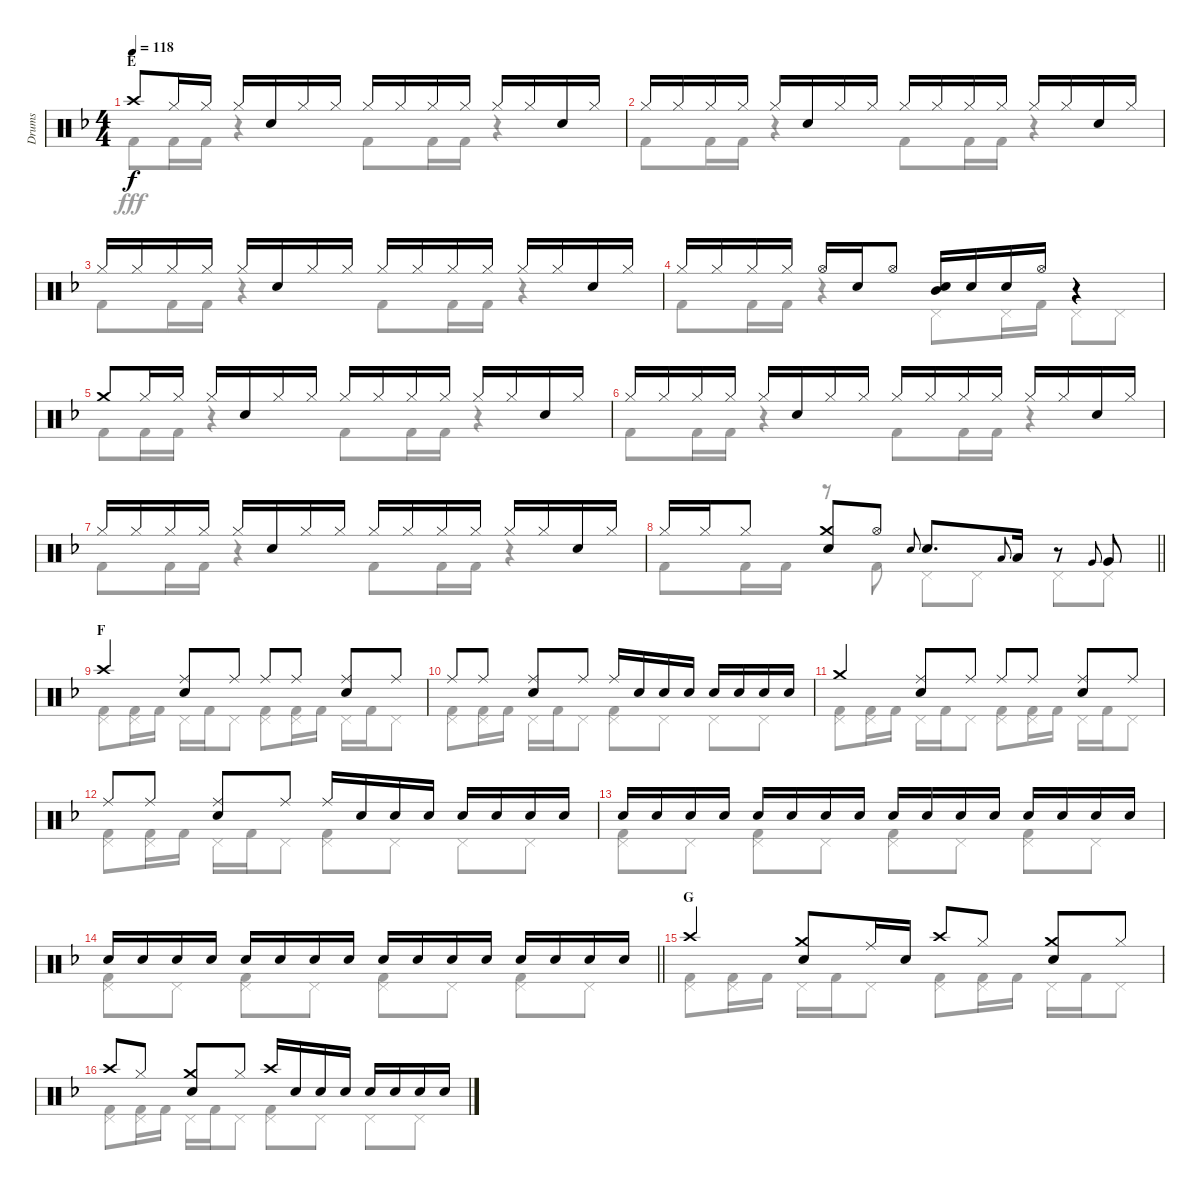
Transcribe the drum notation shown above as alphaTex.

\track ("Drums" "Drums") {instrument percussion}
\staff {score}
\articulation defaults
\voice
\ts (4 4)
\section ("" "E")
\tempo 118
\clef neutral
\ks f "Crash high (hit)".8{dy f} "Hi-Hat (closed)".16 "Hi-Hat (closed)".16 "Hi-Hat (closed)".16 "Snare (hit) 2".16 "Hi-Hat (closed)".16 "Hi-Hat (closed)".16 "Hi-Hat (closed)".16 "Hi-Hat (closed)".16 "Hi-Hat (closed)".16 "Hi-Hat (closed)".16 "Hi-Hat (closed)".16 "Hi-Hat (closed)".16 "Snare (hit) 2".16 "Hi-Hat (closed)".16
|
"Hi-Hat (closed)".16 "Hi-Hat (closed)".16 "Hi-Hat (closed)".16 "Hi-Hat (closed)".16 "Hi-Hat (closed)".16 "Snare (hit) 2".16 "Hi-Hat (closed)".16 "Hi-Hat (closed)".16 "Hi-Hat (closed)".16 "Hi-Hat (closed)".16 "Hi-Hat (closed)".16 "Hi-Hat (closed)".16 "Hi-Hat (closed)".16 "Hi-Hat (closed)".16 "Snare (hit) 2".16 "Hi-Hat (closed)".16 |
"Hi-Hat (closed)".16 "Hi-Hat (closed)".16 "Hi-Hat (closed)".16 "Hi-Hat (closed)".16 "Hi-Hat (closed)".16 "Snare (hit) 2".16 "Hi-Hat (closed)".16 "Hi-Hat (closed)".16 "Hi-Hat (closed)".16 "Hi-Hat (closed)".16 "Hi-Hat (closed)".16 "Hi-Hat (closed)".16 "Hi-Hat (closed)".16 "Hi-Hat (closed)".16 "Snare (hit) 2".16 "Hi-Hat (closed)".16 |
"Hi-Hat (closed)".16 "Hi-Hat (closed)".16 "Hi-Hat (closed)".16 "Hi-Hat (closed)".16 "Hi-Hat (open)".16 "Snare (hit) 2".16 "Hi-Hat (open)".8 ("Mid Tom (hit)" "Snare (hit) 2").16 "Snare (hit) 2".16 "Snare (hit) 2".16 "Hi-Hat (open)".16 r.4 |
"Crash medium (hit)".8 "Hi-Hat (closed)".16 "Hi-Hat (closed)".16 "Hi-Hat (closed)".16 "Snare (hit) 2".16 "Hi-Hat (closed)".16 "Hi-Hat (closed)".16 "Hi-Hat (closed)".16 "Hi-Hat (closed)".16 "Hi-Hat (closed)".16 "Hi-Hat (closed)".16 "Hi-Hat (closed)".16 "Hi-Hat (closed)".16 "Snare (hit) 2".16 "Hi-Hat (closed)".16 |
"Hi-Hat (closed)".16 "Hi-Hat (closed)".16 "Hi-Hat (closed)".16 "Hi-Hat (closed)".16 "Hi-Hat (closed)".16 "Snare (hit) 2".16 "Hi-Hat (closed)".16 "Hi-Hat (closed)".16 "Hi-Hat (closed)".16 "Hi-Hat (closed)".16 "Hi-Hat (closed)".16 "Hi-Hat (closed)".16 "Hi-Hat (closed)".16 "Hi-Hat (closed)".16 "Snare (hit) 2".16 "Hi-Hat (closed)".16 |
"Hi-Hat (closed)".16 "Hi-Hat (closed)".16 "Hi-Hat (closed)".16 "Hi-Hat (closed)".16 "Hi-Hat (closed)".16 "Snare (hit) 2".16 "Hi-Hat (closed)".16 "Hi-Hat (closed)".16 "Hi-Hat (closed)".16 "Hi-Hat (closed)".16 "Hi-Hat (closed)".16 "Hi-Hat (closed)".16 "Hi-Hat (closed)".16 "Hi-Hat (closed)".16 "Snare (hit) 2".16 "Hi-Hat (closed)".16 |
\barLineRight lightlight "Hi-Hat (closed)".16 "Hi-Hat (closed)".16 "Hi-Hat (closed)".8
("Crash medium (hit)" "Snare (hit) 2").8 "Hi-Hat (open)".8 "Snare (hit) 2".8{gr onbeat} "Snare (hit) 2".8{d} "Low Tom (hit)".8{gr onbeat} "Low Tom (hit)".16 r.8 "Very Low Tom (hit)".8{gr onbeat} "Very Low Tom (hit)".8 |
\section ("" "F")
"Crash high (hit)".4 ("Ride (middle)" "Snare (hit) 2").8 "Ride (middle)".8 "Ride (middle)".8 "Ride (middle)".8 ("Ride (middle)" "Snare (hit) 2").8 "Ride (middle)".8 |
"Ride (middle)".8 "Ride (middle)".8 ("Ride (middle)" "Snare (hit) 2").8 "Ride (middle)".8 "Ride (middle)".16 "Snare (hit) 2".16 "Snare (hit) 2".16 "Snare (hit) 2".16 "Snare (hit) 2".16 "Snare (hit) 2".16 "Snare (hit) 2".16 "Snare (hit) 2".16 |
"Crash medium (hit)".4 ("Ride (middle)" "Snare (hit) 2").8 "Ride (middle)".8 "Ride (middle)".8 "Ride (middle)".8 ("Ride (middle)" "Snare (hit) 2").8 "Ride (middle)".8 |
"Ride (middle)".8 "Ride (middle)".8 ("Ride (middle)" "Snare (hit) 2").8 "Ride (middle)".8 "Ride (middle)".16 "Snare (hit) 2".16 "Snare (hit) 2".16 "Snare (hit) 2".16 "Snare (hit) 2".16 "Snare (hit) 2".16 "Snare (hit) 2".16 "Snare (hit) 2".16 |
"Snare (hit) 2".16 "Snare (hit) 2".16 "Snare (hit) 2".16 "Snare (hit) 2".16 "Snare (hit) 2".16 "Snare (hit) 2".16 "Snare (hit) 2".16 "Snare (hit) 2".16 "Snare (hit) 2".16 "Snare (hit) 2".16 "Snare (hit) 2".16 "Snare (hit) 2".16 "Snare (hit) 2".16 "Snare (hit) 2".16 "Snare (hit) 2".16 "Snare (hit) 2".16 |
\barLineRight lightlight "Snare (hit) 2".16 "Snare (hit) 2".16 "Snare (hit) 2".16 "Snare (hit) 2".16 "Snare (hit) 2".16 "Snare (hit) 2".16 "Snare (hit) 2".16 "Snare (hit) 2".16 "Snare (hit) 2".16 "Snare (hit) 2".16 "Snare (hit) 2".16 "Snare (hit) 2".16 "Snare (hit) 2".16 "Snare (hit) 2".16 "Snare (hit) 2".16 "Snare (hit) 2".16
|
\section ("" "G")
"Crash high (hit)".4 ("Crash medium (hit)" "Snare (hit) 2").8 "Ride (middle)".16 "Snare (hit) 2".16 "Crash high (hit)".8 "Hi-Hat (closed)".8 ("Crash medium (hit)" "Snare (hit) 2").8 "Hi-Hat (closed)".8 |
"Crash high (hit)".8 "Hi-Hat (closed)".8 ("Crash medium (hit)" "Snare (hit) 2").8 "Hi-Hat (closed)".8 "Crash high (hit)".16 "Snare (hit) 2".16 "Snare (hit) 2".16 "Snare (hit) 2".16 "Snare (hit) 2".16 "Snare (hit) 2".16 "Snare (hit) 2".16 "Snare (hit) 2".16
\voice
\clef neutral
\ottava regular
\simile none
\ks f "Kick (hit) 2".8{dy fff} "Kick (hit) 2".16 "Kick (hit) 2".16
r.4 "Kick (hit) 2".8 "Kick (hit) 2".16 "Kick (hit) 2".16 r.4 |
"Kick (hit) 2".8 "Kick (hit) 2".16 "Kick (hit) 2".16 r.4 "Kick (hit) 2".8 "Kick (hit) 2".16 "Kick (hit) 2".16 r.4 |
"Kick (hit) 2".8 "Kick (hit) 2".16 "Kick (hit) 2".16 r.4 "Kick (hit) 2".8 "Kick (hit) 2".16 "Kick (hit) 2".16 r.4 |
"Kick (hit) 2".8 "Kick (hit) 2".16 "Kick (hit) 2".16 r.4 "Pedal Hi-Hat (hit)".8 "Pedal Hi-Hat (hit)".16 "Kick (hit) 2".16 "Pedal Hi-Hat (hit)".8 "Pedal Hi-Hat (hit)".8 |
"Kick (hit) 2".8 "Kick (hit) 2".16 "Kick (hit) 2".16 r.4 "Kick (hit) 2".8 "Kick (hit) 2".16 "Kick (hit) 2".16 r.4 |
"Kick (hit) 2".8 "Kick (hit) 2".16 "Kick (hit) 2".16 r.4 "Kick (hit) 2".8 "Kick (hit) 2".16 "Kick (hit) 2".16 r.4 |
"Kick (hit) 2".8 "Kick (hit) 2".16 "Kick (hit) 2".16 r.4 "Kick (hit) 2".8 "Kick (hit) 2".16 "Kick (hit) 2".16 r.4 |
\barLineRight lightlight "Kick (hit) 2".8 "Kick (hit) 2".16 "Kick (hit) 2".16
r.8 "Kick (hit) 2".8 "Pedal Hi-Hat (hit)".8 "Pedal Hi-Hat (hit)".8 "Pedal Hi-Hat (hit)".8 "Pedal Hi-Hat (hit)".8 |
("Pedal Hi-Hat (hit)" "Kick (hit) 2").8 ("Pedal Hi-Hat (hit)" "Kick (hit) 2").16 "Kick (hit) 2".16 "Pedal Hi-Hat (hit)".16 "Kick (hit) 2".16 "Pedal Hi-Hat (hit)".8 ("Pedal Hi-Hat (hit)" "Kick (hit) 2").8 ("Pedal Hi-Hat (hit)" "Kick (hit) 2").16 "Kick (hit) 2".16 "Pedal Hi-Hat (hit)".16 "Kick (hit) 2".16 "Pedal Hi-Hat (hit)".8 |
("Pedal Hi-Hat (hit)" "Kick (hit) 2").8 ("Pedal Hi-Hat (hit)" "Kick (hit) 2").16 "Kick (hit) 2".16 "Pedal Hi-Hat (hit)".16 "Kick (hit) 2".16 "Pedal Hi-Hat (hit)".8 ("Pedal Hi-Hat (hit)" "Kick (hit) 2").8 "Pedal Hi-Hat (hit)".8 "Pedal Hi-Hat (hit)".8 "Pedal Hi-Hat (hit)".8 |
("Pedal Hi-Hat (hit)" "Kick (hit) 2").8 ("Pedal Hi-Hat (hit)" "Kick (hit) 2").16 "Kick (hit) 2".16 "Pedal Hi-Hat (hit)".16 "Kick (hit) 2".16 "Pedal Hi-Hat (hit)".8 ("Pedal Hi-Hat (hit)" "Kick (hit) 2").8 ("Pedal Hi-Hat (hit)" "Kick (hit) 2").16 "Kick (hit) 2".16 "Pedal Hi-Hat (hit)".16 "Kick (hit) 2".16 "Pedal Hi-Hat (hit)".8 |
("Pedal Hi-Hat (hit)" "Kick (hit) 2").8 ("Pedal Hi-Hat (hit)" "Kick (hit) 2").16 "Kick (hit) 2".16 "Pedal Hi-Hat (hit)".16 "Kick (hit) 2".16 "Pedal Hi-Hat (hit)".8 ("Pedal Hi-Hat (hit)" "Kick (hit) 2").8 "Pedal Hi-Hat (hit)".8 "Pedal Hi-Hat (hit)".8 "Pedal Hi-Hat (hit)".8 |
("Pedal Hi-Hat (hit)" "Kick (hit) 2").8 "Pedal Hi-Hat (hit)".8 ("Pedal Hi-Hat (hit)" "Kick (hit) 2").8 "Pedal Hi-Hat (hit)".8 ("Pedal Hi-Hat (hit)" "Kick (hit) 2").8 "Pedal Hi-Hat (hit)".8 ("Pedal Hi-Hat (hit)" "Kick (hit) 2").8 "Pedal Hi-Hat (hit)".8 |
\barLineRight lightlight
("Pedal Hi-Hat (hit)" "Kick (hit) 2").8 "Pedal Hi-Hat (hit)".8 ("Pedal Hi-Hat (hit)" "Kick (hit) 2").8 "Pedal Hi-Hat (hit)".8 ("Pedal Hi-Hat (hit)" "Kick (hit) 2").8 "Pedal Hi-Hat (hit)".8 ("Pedal Hi-Hat (hit)" "Kick (hit) 2").8 "Pedal Hi-Hat (hit)".8 |
("Pedal Hi-Hat (hit)" "Kick (hit) 2").8 ("Pedal Hi-Hat (hit)" "Kick (hit) 2").16 "Kick (hit) 2".16 "Pedal Hi-Hat (hit)".16 "Kick (hit) 2".16 "Pedal Hi-Hat (hit)".8 ("Pedal Hi-Hat (hit)" "Kick (hit) 2").8 ("Pedal Hi-Hat (hit)" "Kick (hit) 2").16 "Kick (hit) 2".16 "Pedal Hi-Hat (hit)".16 "Kick (hit) 2".16 "Pedal Hi-Hat (hit)".8 |
("Pedal Hi-Hat (hit)" "Kick (hit) 2").8 ("Pedal Hi-Hat (hit)" "Kick (hit) 2").16 "Kick (hit) 2".16 "Pedal Hi-Hat (hit)".16 "Kick (hit) 2".16 "Pedal Hi-Hat (hit)".8 ("Pedal Hi-Hat (hit)" "Kick (hit) 2").8 "Pedal Hi-Hat (hit)".8 "Pedal Hi-Hat (hit)".8 "Pedal Hi-Hat (hit)".8
